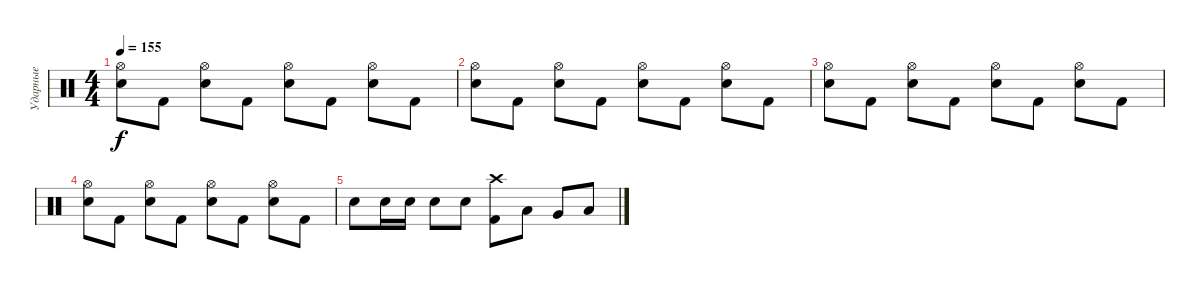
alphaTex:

\track ("Ударные" "Ударные") {instrument percussion}
\staff {score}
\articulation defaults
\ts (4 4)
\tempo 155
\clef neutral
\ks c
("Hi-Hat (open)" "Electric Snare (hit)").8{dy f} "Kick (hit) 2".8 ("Hi-Hat (open)" "Electric Snare (hit)").8 "Kick (hit) 2".8 ("Hi-Hat (open)" "Electric Snare (hit)").8 "Kick (hit) 2".8 ("Hi-Hat (open)" "Electric Snare (hit)").8 "Kick (hit) 2".8 |
("Hi-Hat (open)" "Electric Snare (hit)").8 "Kick (hit) 2".8 ("Hi-Hat (open)" "Electric Snare (hit)").8 "Kick (hit) 2".8 ("Hi-Hat (open)" "Electric Snare (hit)").8 "Kick (hit) 2".8 ("Hi-Hat (open)" "Electric Snare (hit)").8 "Kick (hit) 2".8 |
("Hi-Hat (open)" "Electric Snare (hit)").8 "Kick (hit) 2".8 ("Hi-Hat (open)" "Electric Snare (hit)").8 "Kick (hit) 2".8 ("Hi-Hat (open)" "Electric Snare (hit)").8 "Kick (hit) 2".8 ("Hi-Hat (open)" "Electric Snare (hit)").8 "Kick (hit) 2".8 |
("Hi-Hat (open)" "Electric Snare (hit)").8 "Kick (hit) 2".8 ("Hi-Hat (open)" "Electric Snare (hit)").8 "Kick (hit) 2".8 ("Hi-Hat (open)" "Electric Snare (hit)").8 "Kick (hit) 2".8 ("Hi-Hat (open)" "Electric Snare (hit)").8 "Kick (hit) 2".8 |
"Electric Snare (hit)".8 "Electric Snare (hit)".16 "Electric Snare (hit)".16 "Electric Snare (hit)".8 "Electric Snare (hit)".8 ("Crash high (hit)" "Kick (hit) 2").8 "Low Tom (hit)".8 "Very Low Tom (hit)".8 "Low Floor Tom (hit)".8
